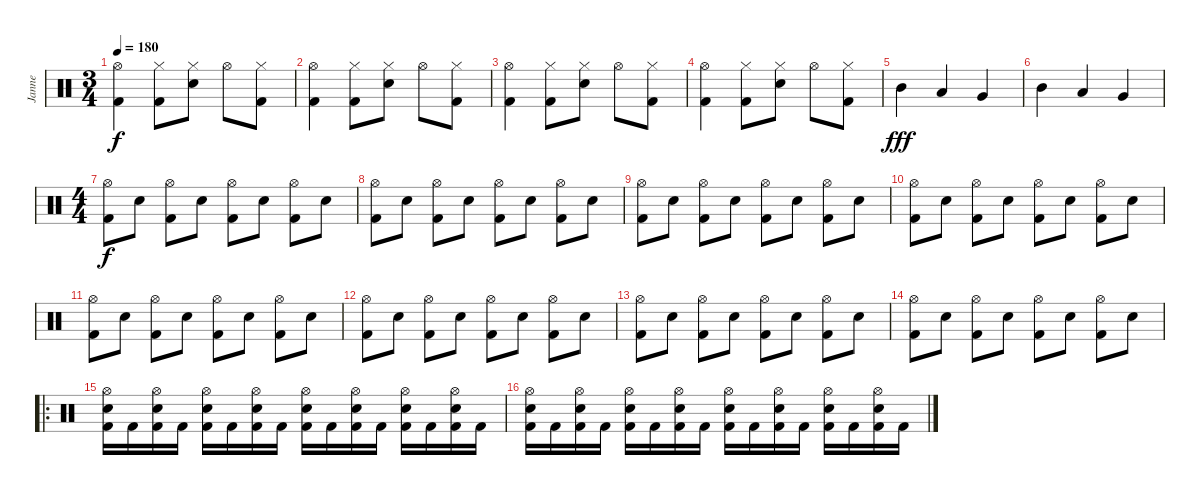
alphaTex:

\track ("Janne" "Janne") {instrument percussion}
\staff {score}
\articulation defaults
\ts (3 4)
\tempo 180
\clef neutral
\ks c
("Hi-Hat (open)" "Kick (hit) 2").4{dy f} ("Hi-Hat (closed)" "Kick (hit) 2").8 ("Hi-Hat (closed)" "Electric Snare (hit)").8 "Hi-Hat (open)".8 ("Hi-Hat (closed)" "Kick (hit) 2").8 |
("Hi-Hat (open)" "Kick (hit) 2").4 ("Hi-Hat (closed)" "Kick (hit) 2").8 ("Hi-Hat (closed)" "Electric Snare (hit)").8 "Hi-Hat (open)".8 ("Hi-Hat (closed)" "Kick (hit) 2").8 |
("Hi-Hat (open)" "Kick (hit) 2").4 ("Hi-Hat (closed)" "Kick (hit) 2").8 ("Hi-Hat (closed)" "Electric Snare (hit)").8 "Hi-Hat (open)".8 ("Hi-Hat (closed)" "Kick (hit) 2").8 |
("Hi-Hat (open)" "Kick (hit) 2").4 ("Hi-Hat (closed)" "Kick (hit) 2").8 ("Hi-Hat (closed)" "Electric Snare (hit)").8 "Hi-Hat (open)".8 ("Hi-Hat (closed)" "Kick (hit) 2").8 |
"Mid Tom (hit)".4{dy fff} "Low Tom (hit)".4 "Very Low Tom (hit)".4 |
"Mid Tom (hit)".4 "Low Tom (hit)".4 "Very Low Tom (hit)".4 |
\ts (4 4)
("Hi-Hat (open)" "Kick (hit) 2").8{dy f} "Electric Snare (hit)".8 ("Hi-Hat (open)" "Kick (hit) 2").8 "Electric Snare (hit)".8 ("Hi-Hat (open)" "Kick (hit) 2").8 "Electric Snare (hit)".8 ("Hi-Hat (open)" "Kick (hit) 2").8 "Electric Snare (hit)".8 |
("Hi-Hat (open)" "Kick (hit) 2").8 "Electric Snare (hit)".8 ("Hi-Hat (open)" "Kick (hit) 2").8 "Electric Snare (hit)".8 ("Hi-Hat (open)" "Kick (hit) 2").8 "Electric Snare (hit)".8 ("Hi-Hat (open)" "Kick (hit) 2").8 "Electric Snare (hit)".8 |
("Hi-Hat (open)" "Kick (hit) 2").8 "Electric Snare (hit)".8 ("Hi-Hat (open)" "Kick (hit) 2").8 "Electric Snare (hit)".8 ("Hi-Hat (open)" "Kick (hit) 2").8 "Electric Snare (hit)".8 ("Hi-Hat (open)" "Kick (hit) 2").8 "Electric Snare (hit)".8 |
("Hi-Hat (open)" "Kick (hit) 2").8 "Electric Snare (hit)".8 ("Hi-Hat (open)" "Kick (hit) 2").8 "Electric Snare (hit)".8 ("Hi-Hat (open)" "Kick (hit) 2").8 "Electric Snare (hit)".8 ("Hi-Hat (open)" "Kick (hit) 2").8 "Electric Snare (hit)".8 |
("Hi-Hat (open)" "Kick (hit) 2").8 "Electric Snare (hit)".8 ("Hi-Hat (open)" "Kick (hit) 2").8 "Electric Snare (hit)".8 ("Hi-Hat (open)" "Kick (hit) 2").8 "Electric Snare (hit)".8 ("Hi-Hat (open)" "Kick (hit) 2").8 "Electric Snare (hit)".8 |
("Hi-Hat (open)" "Kick (hit) 2").8 "Electric Snare (hit)".8 ("Hi-Hat (open)" "Kick (hit) 2").8 "Electric Snare (hit)".8 ("Hi-Hat (open)" "Kick (hit) 2").8 "Electric Snare (hit)".8 ("Hi-Hat (open)" "Kick (hit) 2").8 "Electric Snare (hit)".8 |
("Hi-Hat (open)" "Kick (hit) 2").8 "Electric Snare (hit)".8 ("Hi-Hat (open)" "Kick (hit) 2").8 "Electric Snare (hit)".8 ("Hi-Hat (open)" "Kick (hit) 2").8 "Electric Snare (hit)".8 ("Hi-Hat (open)" "Kick (hit) 2").8 "Electric Snare (hit)".8 |
("Hi-Hat (open)" "Kick (hit) 2").8 "Electric Snare (hit)".8 ("Hi-Hat (open)" "Kick (hit) 2").8 "Electric Snare (hit)".8 ("Hi-Hat (open)" "Kick (hit) 2").8 "Electric Snare (hit)".8 ("Hi-Hat (open)" "Kick (hit) 2").8 "Electric Snare (hit)".8 |
\ro
("Hi-Hat (open)" "Electric Snare (hit)" "Kick (hit) 2").16 "Kick (hit) 2".16 ("Hi-Hat (open)" "Electric Snare (hit)" "Kick (hit) 2").16 "Kick (hit) 2".16 ("Hi-Hat (open)" "Electric Snare (hit)" "Kick (hit) 2").16 "Kick (hit) 2".16 ("Hi-Hat (open)" "Electric Snare (hit)" "Kick (hit) 2").16 "Kick (hit) 2".16 ("Hi-Hat (open)" "Electric Snare (hit)" "Kick (hit) 2").16 "Kick (hit) 2".16 ("Hi-Hat (open)" "Electric Snare (hit)" "Kick (hit) 2").16 "Kick (hit) 2".16 ("Hi-Hat (open)" "Electric Snare (hit)" "Kick (hit) 2").16 "Kick (hit) 2".16 ("Hi-Hat (open)" "Electric Snare (hit)" "Kick (hit) 2").16 "Kick (hit) 2".16 |
("Hi-Hat (open)" "Electric Snare (hit)" "Kick (hit) 2").16 "Kick (hit) 2".16 ("Hi-Hat (open)" "Electric Snare (hit)" "Kick (hit) 2").16 "Kick (hit) 2".16 ("Hi-Hat (open)" "Electric Snare (hit)" "Kick (hit) 2").16 "Kick (hit) 2".16 ("Hi-Hat (open)" "Electric Snare (hit)" "Kick (hit) 2").16 "Kick (hit) 2".16 ("Hi-Hat (open)" "Electric Snare (hit)" "Kick (hit) 2").16 "Kick (hit) 2".16 ("Hi-Hat (open)" "Electric Snare (hit)" "Kick (hit) 2").16 "Kick (hit) 2".16 ("Hi-Hat (open)" "Electric Snare (hit)" "Kick (hit) 2").16 "Kick (hit) 2".16 ("Hi-Hat (open)" "Electric Snare (hit)" "Kick (hit) 2").16 "Kick (hit) 2".16
